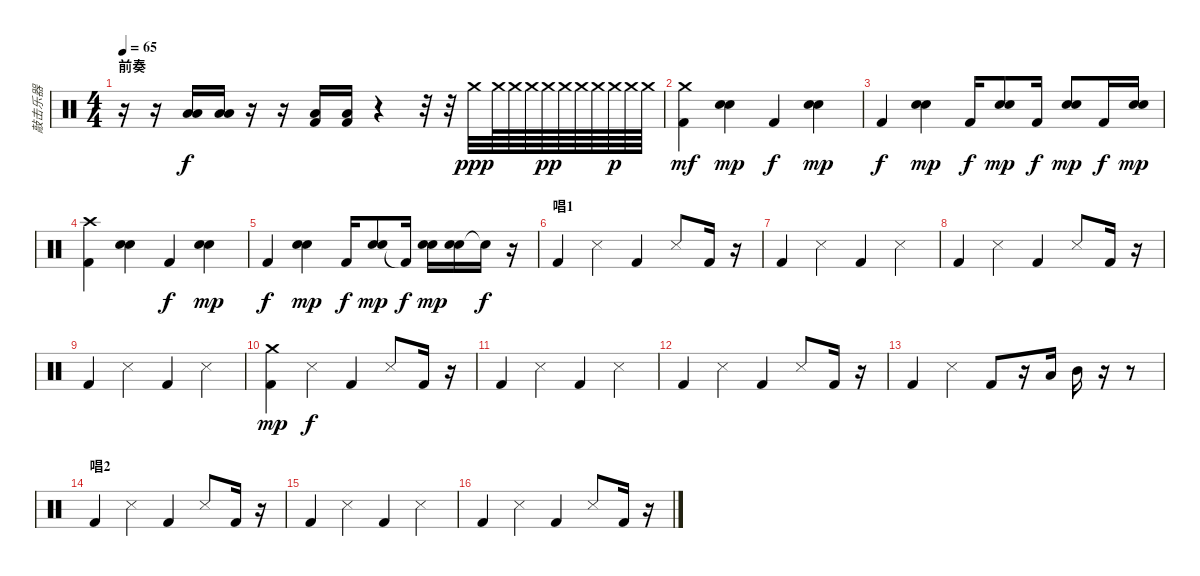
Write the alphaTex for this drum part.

\track ("敲击乐器" "敲击乐器") {instrument percussion}
\staff {score}
\articulation defaults
\ts (4 4)
\section ("" "前奏")
\tempo 65
\clef neutral
\ks c
r.16{dy f} r.16 ("Low Tom (hit)" "Low Tom (hit)").16 ("Low Tom (hit)" "Low Tom (hit)").16 r.16 r.16 ("Low Floor Tom (hit)" "Kick (hit) 2").16 ("Low Floor Tom (hit)" "Kick (hit) 2").16 r.4 r.32 r.32 "Crash medium (hit)".32{dy ppp} "Crash medium (hit)".64 "Crash medium (hit)".64 "Crash medium (hit)".64 "Crash medium (hit)".64{dy pp} "Crash medium (hit)".64 "Crash medium (hit)".64 "Crash medium (hit)".64 "Crash medium (hit)".64{dy p} "Crash medium (hit)".64 "Crash medium (hit)".64 |
("Crash medium (hit)" "Kick (hit) 2").4{dy mf} ("Electric Snare (hit)" "Snare (hit) 2").4{dy mp} "Kick (hit) 2".4{dy f} ("Electric Snare (hit)" "Snare (hit) 2").4{dy mp} |
"Kick (hit) 2".4{dy f} ("Electric Snare (hit)" "Snare (hit) 2").4{dy mp} "Kick (hit) 2".16{dy f} ("Electric Snare (hit)" "Snare (hit) 2").8{dy mp} "Kick (hit) 2".16{dy f} ("Electric Snare (hit)" "Snare (hit) 2").8{dy mp} "Kick (hit) 2".16{dy f} ("Electric Snare (hit)" "Snare (hit) 2").16{dy mp} |
("Crash high (hit)" "Kick (hit) 2").4 ("Electric Snare (hit)" "Snare (hit) 2").4 "Kick (hit) 2".4{dy f} ("Electric Snare (hit)" "Snare (hit) 2").4{dy mp} |
"Kick (hit) 2".4{dy f} ("Electric Snare (hit)" "Snare (hit) 2").4{dy mp} "Kick (hit) 2".16{dy f} ("Electric Snare (hit)" "Snare (hit) 2").8{dy mp} "Kick (hit) 2"{t}.16{dy f} ("Electric Snare (hit)" "Snare (hit) 2").16{dy mp} ("Electric Snare (hit)" "Snare (hit) 2").16 "Snare (hit)"{t}.16{dy f} r.16 |
\section ("" "唱1")
"Kick (hit) 2".4 "Snare (side stick) 3".4 "Kick (hit) 2".4 "Snare (side stick) 3".8 "Kick (hit) 2".16 r.16 |
"Kick (hit) 2".4 "Snare (side stick) 3".4 "Kick (hit) 2".4 "Snare (side stick) 3".4 |
"Kick (hit) 2".4 "Snare (side stick) 3".4 "Kick (hit) 2".4 "Snare (side stick) 3".8 "Kick (hit) 2".16 r.16 |
"Kick (hit) 2".4 "Snare (side stick) 3".4 "Kick (hit) 2".4 "Snare (side stick) 3".4 |
("Crash medium (hit)" "Kick (hit) 2").4{dy mp} "Snare (side stick) 3".4{dy f} "Kick (hit) 2".4 "Snare (side stick) 3".8 "Kick (hit) 2".16 r.16 |
"Kick (hit) 2".4 "Snare (side stick) 3".4 "Kick (hit) 2".4 "Snare (side stick) 3".4 |
"Kick (hit) 2".4 "Snare (side stick) 3".4 "Kick (hit) 2".4 "Snare (side stick) 3".8 "Kick (hit) 2".16 r.16 |
"Kick (hit) 2".4 "Snare (side stick) 3".4 "Kick (hit) 2".8 r.16 "Low Tom (hit)".16 "Mid Tom (hit)".16 r.16 r.8 |
\section ("" "唱2")
"Kick (hit) 2".4 "Snare (side stick) 3".4 "Kick (hit) 2".4 "Snare (side stick) 3".8 "Kick (hit) 2".16 r.16 |
"Kick (hit) 2".4 "Snare (side stick) 3".4 "Kick (hit) 2".4 "Snare (side stick) 3".4 |
"Kick (hit) 2".4 "Snare (side stick) 3".4 "Kick (hit) 2".4 "Snare (side stick) 3".8 "Kick (hit) 2".16 r.16
